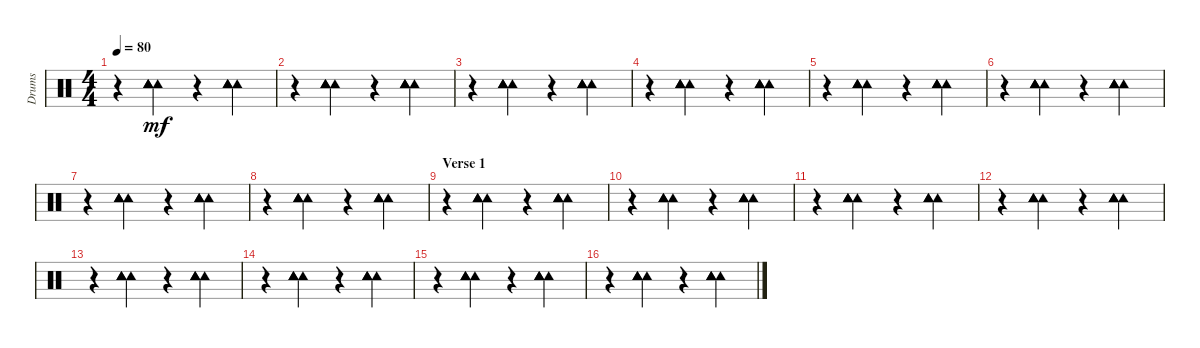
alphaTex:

\track ("Drums" "Drums") {instrument percussion}
\staff {score}
\articulation defaults
\ts (4 4)
\tempo 80
\clef neutral
\ks c
r.4{dy mf} ("Tambourine (hit)" "Tambourine (hit)" "Tambourine (hit)" "Tambourine (hit)").4{bd 30} r.4 ("Tambourine (hit)" "Tambourine (hit)" "Tambourine (hit)" "Tambourine (hit)").4{bd 30} |
r.4 ("Tambourine (hit)" "Tambourine (hit)" "Tambourine (hit)" "Tambourine (hit)").4{bd 30} r.4 ("Tambourine (hit)" "Tambourine (hit)" "Tambourine (hit)" "Tambourine (hit)").4{bd 30} |
r.4 ("Tambourine (hit)" "Tambourine (hit)" "Tambourine (hit)" "Tambourine (hit)").4{bd 30} r.4 ("Tambourine (hit)" "Tambourine (hit)" "Tambourine (hit)" "Tambourine (hit)").4{bd 30} |
r.4 ("Tambourine (hit)" "Tambourine (hit)" "Tambourine (hit)" "Tambourine (hit)").4{bd 30} r.4 ("Tambourine (hit)" "Tambourine (hit)" "Tambourine (hit)" "Tambourine (hit)").4{bd 30} |
r.4 ("Tambourine (hit)" "Tambourine (hit)" "Tambourine (hit)" "Tambourine (hit)").4{bd 30} r.4 ("Tambourine (hit)" "Tambourine (hit)" "Tambourine (hit)" "Tambourine (hit)").4{bd 30} |
r.4 ("Tambourine (hit)" "Tambourine (hit)" "Tambourine (hit)" "Tambourine (hit)").4{bd 30} r.4 ("Tambourine (hit)" "Tambourine (hit)" "Tambourine (hit)" "Tambourine (hit)").4{bd 30} |
r.4 ("Tambourine (hit)" "Tambourine (hit)" "Tambourine (hit)" "Tambourine (hit)").4{bd 30} r.4 ("Tambourine (hit)" "Tambourine (hit)" "Tambourine (hit)" "Tambourine (hit)").4{bd 30} |
r.4 ("Tambourine (hit)" "Tambourine (hit)" "Tambourine (hit)" "Tambourine (hit)").4{bd 30} r.4 ("Tambourine (hit)" "Tambourine (hit)" "Tambourine (hit)" "Tambourine (hit)").4{bd 30} |
\section ("" "Verse 1")
r.4 ("Tambourine (hit)" "Tambourine (hit)" "Tambourine (hit)" "Tambourine (hit)").4{bd 30} r.4 ("Tambourine (hit)" "Tambourine (hit)" "Tambourine (hit)" "Tambourine (hit)").4{bd 30} |
r.4 ("Tambourine (hit)" "Tambourine (hit)" "Tambourine (hit)" "Tambourine (hit)").4{bd 30} r.4 ("Tambourine (hit)" "Tambourine (hit)" "Tambourine (hit)" "Tambourine (hit)").4{bd 30} |
r.4 ("Tambourine (hit)" "Tambourine (hit)" "Tambourine (hit)" "Tambourine (hit)").4{bd 30} r.4 ("Tambourine (hit)" "Tambourine (hit)" "Tambourine (hit)" "Tambourine (hit)").4{bd 30} |
r.4 ("Tambourine (hit)" "Tambourine (hit)" "Tambourine (hit)" "Tambourine (hit)").4{bd 30} r.4 ("Tambourine (hit)" "Tambourine (hit)" "Tambourine (hit)" "Tambourine (hit)").4{bd 30} |
r.4 ("Tambourine (hit)" "Tambourine (hit)" "Tambourine (hit)" "Tambourine (hit)").4{bd 30} r.4 ("Tambourine (hit)" "Tambourine (hit)" "Tambourine (hit)" "Tambourine (hit)").4{bd 30} |
r.4 ("Tambourine (hit)" "Tambourine (hit)" "Tambourine (hit)" "Tambourine (hit)").4{bd 30} r.4 ("Tambourine (hit)" "Tambourine (hit)" "Tambourine (hit)" "Tambourine (hit)").4{bd 30} |
r.4 ("Tambourine (hit)" "Tambourine (hit)" "Tambourine (hit)" "Tambourine (hit)").4{bd 30} r.4 ("Tambourine (hit)" "Tambourine (hit)" "Tambourine (hit)" "Tambourine (hit)").4{bd 30} |
r.4 ("Tambourine (hit)" "Tambourine (hit)" "Tambourine (hit)" "Tambourine (hit)").4{bd 30} r.4 ("Tambourine (hit)" "Tambourine (hit)" "Tambourine (hit)" "Tambourine (hit)").4{bd 30}
